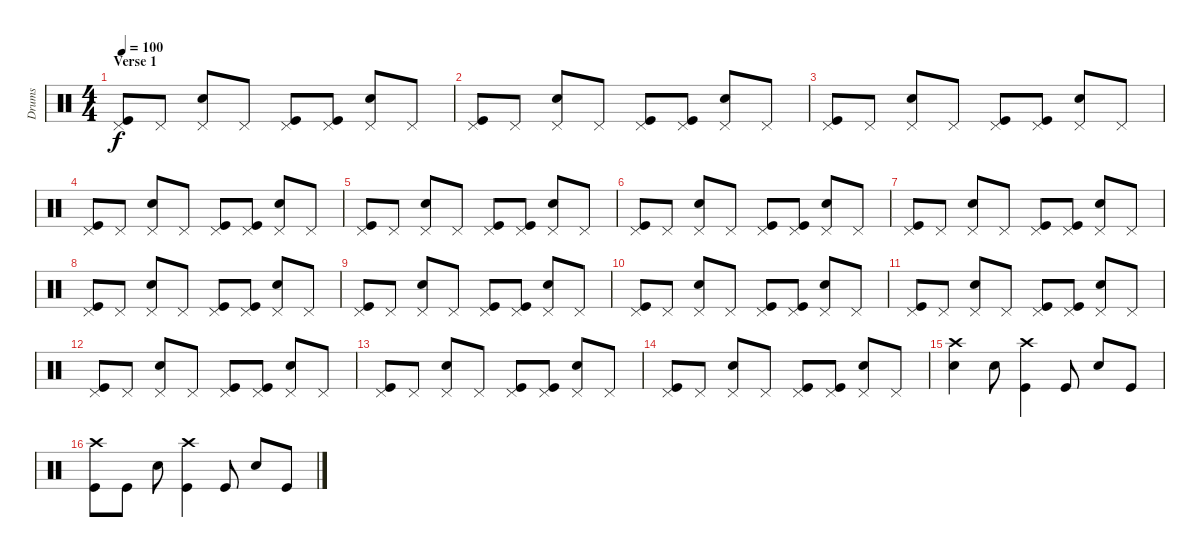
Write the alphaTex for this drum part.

\track ("Drums" "Drums") {instrument percussion}
\staff {score}
\articulation defaults
\ts (4 4)
\section ("" "Verse 1")
\tempo 100
\clef neutral
\ks c
("Pedal Hi-Hat (hit)" "Kick (hit)").8{dy f} "Pedal Hi-Hat (hit)".8 ("Pedal Hi-Hat (hit)" "Snare (hit) 2").8 "Pedal Hi-Hat (hit)".8 ("Pedal Hi-Hat (hit)" "Kick (hit)").8 ("Pedal Hi-Hat (hit)" "Kick (hit)").8 ("Pedal Hi-Hat (hit)" "Snare (hit) 2").8 "Pedal Hi-Hat (hit)".8 |
("Pedal Hi-Hat (hit)" "Kick (hit)").8 "Pedal Hi-Hat (hit)".8 ("Pedal Hi-Hat (hit)" "Snare (hit) 2").8 "Pedal Hi-Hat (hit)".8 ("Pedal Hi-Hat (hit)" "Kick (hit)").8 ("Pedal Hi-Hat (hit)" "Kick (hit)").8 ("Pedal Hi-Hat (hit)" "Snare (hit) 2").8 "Pedal Hi-Hat (hit)".8 |
("Pedal Hi-Hat (hit)" "Kick (hit)").8 "Pedal Hi-Hat (hit)".8 ("Pedal Hi-Hat (hit)" "Snare (hit) 2").8 "Pedal Hi-Hat (hit)".8 ("Pedal Hi-Hat (hit)" "Kick (hit)").8 ("Pedal Hi-Hat (hit)" "Kick (hit)").8 ("Pedal Hi-Hat (hit)" "Snare (hit) 2").8 "Pedal Hi-Hat (hit)".8 |
("Pedal Hi-Hat (hit)" "Kick (hit)").8 "Pedal Hi-Hat (hit)".8 ("Pedal Hi-Hat (hit)" "Snare (hit) 2").8 "Pedal Hi-Hat (hit)".8 ("Pedal Hi-Hat (hit)" "Kick (hit)").8 ("Pedal Hi-Hat (hit)" "Kick (hit)").8 ("Pedal Hi-Hat (hit)" "Snare (hit) 2").8 "Pedal Hi-Hat (hit)".8 |
("Pedal Hi-Hat (hit)" "Kick (hit)").8 "Pedal Hi-Hat (hit)".8 ("Pedal Hi-Hat (hit)" "Snare (hit) 2").8 "Pedal Hi-Hat (hit)".8 ("Pedal Hi-Hat (hit)" "Kick (hit)").8 ("Pedal Hi-Hat (hit)" "Kick (hit)").8 ("Pedal Hi-Hat (hit)" "Snare (hit) 2").8 "Pedal Hi-Hat (hit)".8 |
("Pedal Hi-Hat (hit)" "Kick (hit)").8 "Pedal Hi-Hat (hit)".8 ("Pedal Hi-Hat (hit)" "Snare (hit) 2").8 "Pedal Hi-Hat (hit)".8 ("Pedal Hi-Hat (hit)" "Kick (hit)").8 ("Pedal Hi-Hat (hit)" "Kick (hit)").8 ("Pedal Hi-Hat (hit)" "Snare (hit) 2").8 "Pedal Hi-Hat (hit)".8 |
("Pedal Hi-Hat (hit)" "Kick (hit)").8 "Pedal Hi-Hat (hit)".8 ("Pedal Hi-Hat (hit)" "Snare (hit) 2").8 "Pedal Hi-Hat (hit)".8 ("Pedal Hi-Hat (hit)" "Kick (hit)").8 ("Pedal Hi-Hat (hit)" "Kick (hit)").8 ("Pedal Hi-Hat (hit)" "Snare (hit) 2").8 "Pedal Hi-Hat (hit)".8 |
("Pedal Hi-Hat (hit)" "Kick (hit)").8 "Pedal Hi-Hat (hit)".8 ("Pedal Hi-Hat (hit)" "Snare (hit) 2").8 "Pedal Hi-Hat (hit)".8 ("Pedal Hi-Hat (hit)" "Kick (hit)").8 ("Pedal Hi-Hat (hit)" "Kick (hit)").8 ("Pedal Hi-Hat (hit)" "Snare (hit) 2").8 "Pedal Hi-Hat (hit)".8 |
("Pedal Hi-Hat (hit)" "Kick (hit)").8 "Pedal Hi-Hat (hit)".8 ("Pedal Hi-Hat (hit)" "Snare (hit) 2").8 "Pedal Hi-Hat (hit)".8 ("Pedal Hi-Hat (hit)" "Kick (hit)").8 ("Pedal Hi-Hat (hit)" "Kick (hit)").8 ("Pedal Hi-Hat (hit)" "Snare (hit) 2").8 "Pedal Hi-Hat (hit)".8 |
("Pedal Hi-Hat (hit)" "Kick (hit)").8 "Pedal Hi-Hat (hit)".8 ("Pedal Hi-Hat (hit)" "Snare (hit) 2").8 "Pedal Hi-Hat (hit)".8 ("Pedal Hi-Hat (hit)" "Kick (hit)").8 ("Pedal Hi-Hat (hit)" "Kick (hit)").8 ("Pedal Hi-Hat (hit)" "Snare (hit) 2").8 "Pedal Hi-Hat (hit)".8 |
("Pedal Hi-Hat (hit)" "Kick (hit)").8 "Pedal Hi-Hat (hit)".8 ("Pedal Hi-Hat (hit)" "Snare (hit) 2").8 "Pedal Hi-Hat (hit)".8 ("Pedal Hi-Hat (hit)" "Kick (hit)").8 ("Pedal Hi-Hat (hit)" "Kick (hit)").8 ("Pedal Hi-Hat (hit)" "Snare (hit) 2").8 "Pedal Hi-Hat (hit)".8 |
("Pedal Hi-Hat (hit)" "Kick (hit)").8 "Pedal Hi-Hat (hit)".8 ("Pedal Hi-Hat (hit)" "Snare (hit) 2").8 "Pedal Hi-Hat (hit)".8 ("Pedal Hi-Hat (hit)" "Kick (hit)").8 ("Pedal Hi-Hat (hit)" "Kick (hit)").8 ("Pedal Hi-Hat (hit)" "Snare (hit) 2").8 "Pedal Hi-Hat (hit)".8 |
("Pedal Hi-Hat (hit)" "Kick (hit)").8 "Pedal Hi-Hat (hit)".8 ("Pedal Hi-Hat (hit)" "Snare (hit) 2").8 "Pedal Hi-Hat (hit)".8 ("Pedal Hi-Hat (hit)" "Kick (hit)").8 ("Pedal Hi-Hat (hit)" "Kick (hit)").8 ("Pedal Hi-Hat (hit)" "Snare (hit) 2").8 "Pedal Hi-Hat (hit)".8 |
("Pedal Hi-Hat (hit)" "Kick (hit)").8 "Pedal Hi-Hat (hit)".8 ("Pedal Hi-Hat (hit)" "Snare (hit) 2").8 "Pedal Hi-Hat (hit)".8 ("Pedal Hi-Hat (hit)" "Kick (hit)").8 ("Pedal Hi-Hat (hit)" "Kick (hit)").8 ("Pedal Hi-Hat (hit)" "Snare (hit) 2").8 "Pedal Hi-Hat (hit)".8 |
("Crash high (hit)" "Snare (hit) 2").4 "Snare (hit) 2".8 ("Crash high (hit)" "Kick (hit)").4 "Kick (hit)".8 "Snare (hit) 2".8 "Kick (hit)".8 |
("Crash high (hit)" "Kick (hit)").8 "Kick (hit)".8 "Snare (hit) 2".8 ("Crash high (hit)" "Kick (hit)").4 "Kick (hit)".8 "Snare (hit) 2".8 "Kick (hit)".8
